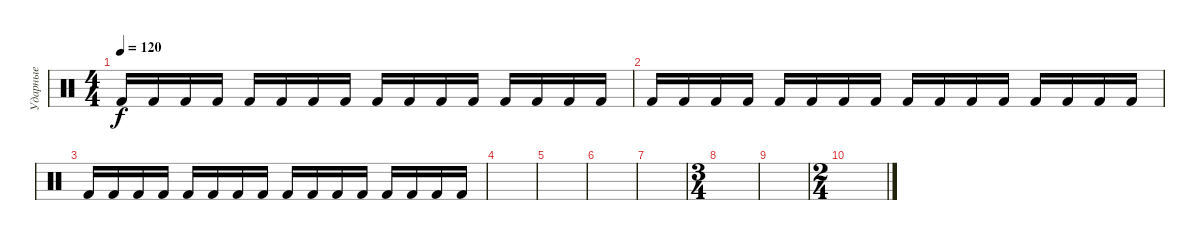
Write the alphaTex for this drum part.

\track ("Ударные" "Ударные") {instrument percussion}
\staff {score}
\articulation defaults
\ts (4 4)
\tempo 120
\clef neutral
\ks c "Kick (hit) 2".16{dy f} "Kick (hit) 2".16 "Kick (hit) 2".16 "Kick (hit) 2".16 "Kick (hit) 2".16 "Kick (hit) 2".16 "Kick (hit) 2".16 "Kick (hit) 2".16 "Kick (hit) 2".16 "Kick (hit) 2".16 "Kick (hit) 2".16 "Kick (hit) 2".16 "Kick (hit) 2".16 "Kick (hit) 2".16 "Kick (hit) 2".16 "Kick (hit) 2".16
|
"Kick (hit) 2".16 "Kick (hit) 2".16 "Kick (hit) 2".16 "Kick (hit) 2".16 "Kick (hit) 2".16 "Kick (hit) 2".16 "Kick (hit) 2".16 "Kick (hit) 2".16 "Kick (hit) 2".16 "Kick (hit) 2".16 "Kick (hit) 2".16 "Kick (hit) 2".16 "Kick (hit) 2".16 "Kick (hit) 2".16 "Kick (hit) 2".16 "Kick (hit) 2".16 |
"Kick (hit) 2".16 "Kick (hit) 2".16 "Kick (hit) 2".16 "Kick (hit) 2".16 "Kick (hit) 2".16 "Kick (hit) 2".16 "Kick (hit) 2".16 "Kick (hit) 2".16 "Kick (hit) 2".16 "Kick (hit) 2".16 "Kick (hit) 2".16 "Kick (hit) 2".16 "Kick (hit) 2".16 "Kick (hit) 2".16 "Kick (hit) 2".16 "Kick (hit) 2".16 |
|
|
|
|
\ts (3 4)
|
|
\ts (2 4)
